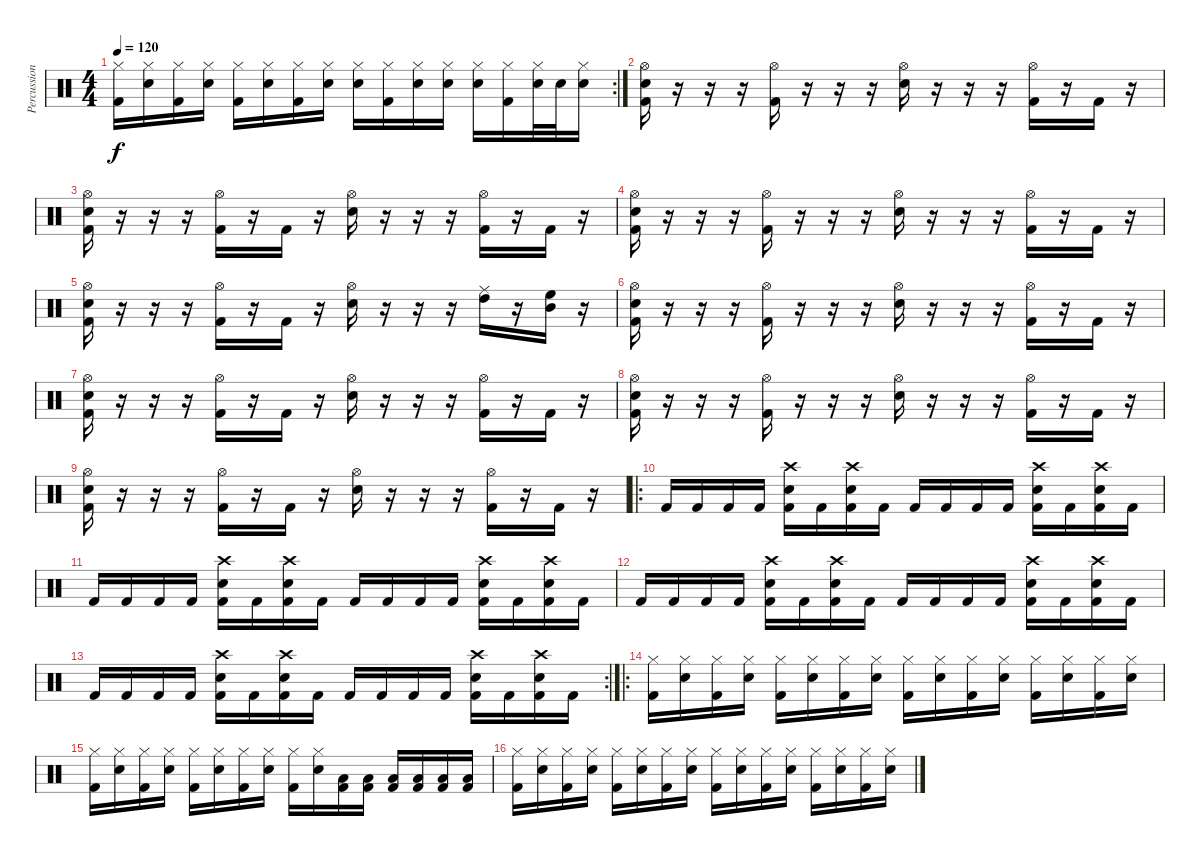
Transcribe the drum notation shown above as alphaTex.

\track ("Percussion" "Percussion") {instrument percussion}
\staff {score}
\articulation defaults
\rc 2
\ts (4 4)
\tempo 120
\clef neutral
\ks c
("Hi-Hat (closed)" "Kick (hit) 2").16{dy f} ("Hi-Hat (closed)" "Snare (hit) 2").16 ("Hi-Hat (closed)" "Kick (hit) 2").16 ("Hi-Hat (closed)" "Snare (hit) 2").16 ("Hi-Hat (closed)" "Kick (hit) 2").16 ("Hi-Hat (closed)" "Snare (hit) 2").16 ("Hi-Hat (closed)" "Kick (hit) 2").16 ("Hi-Hat (closed)" "Snare (hit) 2").16 ("Hi-Hat (closed)" "Snare (hit) 2").16 ("Hi-Hat (closed)" "Kick (hit) 2").16 ("Hi-Hat (closed)" "Snare (hit) 2").16 ("Hi-Hat (closed)" "Snare (hit) 2").16 ("Hi-Hat (closed)" "Snare (hit) 2").16 ("Hi-Hat (closed)" "Kick (hit) 2").16 ("Hi-Hat (closed)" "Snare (hit) 2").32 "Snare (hit) 2".32 ("Hi-Hat (closed)" "Snare (hit) 2").16 |
("Hi-Hat (open)" "Snare (hit) 2" "Kick (hit) 2").16 r.16 r.16 r.16 ("Hi-Hat (open)" "Kick (hit) 2").16 r.16 r.16 r.16 ("Hi-Hat (open)" "Snare (hit) 2").16 r.16 r.16 r.16 ("Hi-Hat (open)" "Kick (hit) 2").16 r.16 "Kick (hit) 2".16 r.16 |
("Hi-Hat (open)" "Snare (hit) 2" "Kick (hit) 2").16 r.16 r.16 r.16 ("Hi-Hat (open)" "Kick (hit) 2").16 r.16 "Kick (hit) 2".16 r.16 ("Hi-Hat (open)" "Snare (hit) 2").16 r.16 r.16 r.16 ("Hi-Hat (open)" "Kick (hit) 2").16 r.16 "Kick (hit) 2".16 r.16 |
("Hi-Hat (open)" "Snare (hit) 2" "Kick (hit) 2").16 r.16 r.16 r.16 ("Hi-Hat (open)" "Kick (hit) 2").16 r.16 r.16 r.16 ("Hi-Hat (open)" "Snare (hit) 2").16 r.16 r.16 r.16 ("Hi-Hat (open)" "Kick (hit) 2").16 r.16 "Kick (hit) 2".16 r.16 |
("Hi-Hat (open)" "Snare (hit) 2" "Kick (hit) 2").16 r.16 r.16 r.16 ("Hi-Hat (open)" "Kick (hit) 2").16 r.16 "Kick (hit) 2".16 r.16 ("Hi-Hat (open)" "Snare (hit) 2").16 r.16 r.16 r.16 ("High Tom (hit)" "Ride (middle)").16 r.16 ("Mid Tom (hit)" "High Floor Tom (hit)").16 r.16 |
("Hi-Hat (open)" "Snare (hit) 2" "Kick (hit) 2").16 r.16 r.16 r.16 ("Hi-Hat (open)" "Kick (hit) 2").16 r.16 r.16 r.16 ("Hi-Hat (open)" "Snare (hit) 2").16 r.16 r.16 r.16 ("Hi-Hat (open)" "Kick (hit) 2").16 r.16 "Kick (hit) 2".16 r.16 |
("Hi-Hat (open)" "Snare (hit) 2" "Kick (hit) 2").16 r.16 r.16 r.16 ("Hi-Hat (open)" "Kick (hit) 2").16 r.16 "Kick (hit) 2".16 r.16 ("Hi-Hat (open)" "Snare (hit) 2").16 r.16 r.16 r.16 ("Hi-Hat (open)" "Kick (hit) 2").16 r.16 "Kick (hit) 2".16 r.16 |
("Hi-Hat (open)" "Snare (hit) 2" "Kick (hit) 2").16 r.16 r.16 r.16 ("Hi-Hat (open)" "Kick (hit) 2").16 r.16 r.16 r.16 ("Hi-Hat (open)" "Snare (hit) 2").16 r.16 r.16 r.16 ("Hi-Hat (open)" "Kick (hit) 2").16 r.16 "Kick (hit) 2".16 r.16 |
("Hi-Hat (open)" "Snare (hit) 2" "Kick (hit) 2").16 r.16 r.16 r.16 ("Hi-Hat (open)" "Kick (hit) 2").16 r.16 "Kick (hit) 2".16 r.16 ("Hi-Hat (open)" "Snare (hit) 2").16 r.16 r.16 r.16 ("Hi-Hat (open)" "Kick (hit) 2").16 r.16 "Kick (hit) 2".16 r.16 |
\ro "Kick (hit) 2".16 "Kick (hit) 2".16 "Kick (hit) 2".16 "Kick (hit) 2".16
("Crash high (hit)" "Snare (hit) 2" "Kick (hit) 2").16 "Kick (hit) 2".16 ("Crash high (hit)" "Snare (hit) 2" "Kick (hit) 2").16 "Kick (hit) 2".16 "Kick (hit) 2".16 "Kick (hit) 2".16 "Kick (hit) 2".16 "Kick (hit) 2".16 ("Crash high (hit)" "Snare (hit) 2" "Kick (hit) 2").16 "Kick (hit) 2".16 ("Crash high (hit)" "Snare (hit) 2" "Kick (hit) 2").16 "Kick (hit) 2".16 |
"Kick (hit) 2".16 "Kick (hit) 2".16 "Kick (hit) 2".16 "Kick (hit) 2".16 ("Crash high (hit)" "Snare (hit) 2" "Kick (hit) 2").16 "Kick (hit) 2".16 ("Crash high (hit)" "Snare (hit) 2" "Kick (hit) 2").16 "Kick (hit) 2".16 "Kick (hit) 2".16 "Kick (hit) 2".16 "Kick (hit) 2".16 "Kick (hit) 2".16 ("Crash high (hit)" "Snare (hit) 2" "Kick (hit) 2").16 "Kick (hit) 2".16 ("Crash high (hit)" "Snare (hit) 2" "Kick (hit) 2").16 "Kick (hit) 2".16 |
"Kick (hit) 2".16 "Kick (hit) 2".16 "Kick (hit) 2".16 "Kick (hit) 2".16 ("Crash high (hit)" "Snare (hit) 2" "Kick (hit) 2").16 "Kick (hit) 2".16 ("Crash high (hit)" "Snare (hit) 2" "Kick (hit) 2").16 "Kick (hit) 2".16 "Kick (hit) 2".16 "Kick (hit) 2".16 "Kick (hit) 2".16 "Kick (hit) 2".16 ("Crash high (hit)" "Snare (hit) 2" "Kick (hit) 2").16 "Kick (hit) 2".16 ("Crash high (hit)" "Snare (hit) 2" "Kick (hit) 2").16 "Kick (hit) 2".16 |
\rc 2 "Kick (hit) 2".16 "Kick (hit) 2".16 "Kick (hit) 2".16 "Kick (hit) 2".16
("Crash high (hit)" "Snare (hit) 2" "Kick (hit) 2").16 "Kick (hit) 2".16 ("Crash high (hit)" "Snare (hit) 2" "Kick (hit) 2").16 "Kick (hit) 2".16 "Kick (hit) 2".16 "Kick (hit) 2".16 "Kick (hit) 2".16 "Kick (hit) 2".16 ("Crash high (hit)" "Snare (hit) 2" "Kick (hit) 2").16 "Kick (hit) 2".16 ("Crash high (hit)" "Snare (hit) 2" "Kick (hit) 2").16 "Kick (hit) 2".16 |
\ro
("Hi-Hat (closed)" "Kick (hit) 2").16 ("Hi-Hat (closed)" "Snare (hit) 2").16 ("Hi-Hat (closed)" "Kick (hit) 2").16 ("Hi-Hat (closed)" "Snare (hit) 2").16 ("Hi-Hat (closed)" "Kick (hit) 2").16 ("Hi-Hat (closed)" "Snare (hit) 2").16 ("Hi-Hat (closed)" "Kick (hit) 2").16 ("Hi-Hat (closed)" "Snare (hit) 2").16 ("Hi-Hat (closed)" "Kick (hit) 2").16 ("Hi-Hat (closed)" "Snare (hit) 2").16 ("Hi-Hat (closed)" "Kick (hit) 2").16 ("Hi-Hat (closed)" "Snare (hit) 2").16 ("Hi-Hat (closed)" "Kick (hit) 2").16 ("Hi-Hat (closed)" "Snare (hit) 2").16 ("Hi-Hat (closed)" "Kick (hit) 2").16 ("Hi-Hat (closed)" "Snare (hit) 2").16 |
("Hi-Hat (closed)" "Kick (hit) 2").16 ("Hi-Hat (closed)" "Snare (hit) 2").16 ("Hi-Hat (closed)" "Kick (hit) 2").16 ("Hi-Hat (closed)" "Snare (hit) 2").16 ("Hi-Hat (closed)" "Kick (hit) 2").16 ("Hi-Hat (closed)" "Snare (hit) 2").16 ("Hi-Hat (closed)" "Kick (hit) 2").16 ("Hi-Hat (closed)" "Snare (hit) 2").16 ("Hi-Hat (closed)" "Kick (hit) 2").16 ("Hi-Hat (closed)" "Snare (hit) 2").16 ("Low Tom (hit)" "Kick (hit) 2").16 ("Low Tom (hit)" "Kick (hit) 2").16 ("Low Tom (hit)" "Kick (hit) 2").16 ("Low Tom (hit)" "Kick (hit) 2").16 ("Low Tom (hit)" "Kick (hit) 2").16 ("Low Tom (hit)" "Kick (hit) 2").16 |
("Hi-Hat (closed)" "Kick (hit) 2").16 ("Hi-Hat (closed)" "Snare (hit) 2").16 ("Hi-Hat (closed)" "Kick (hit) 2").16 ("Hi-Hat (closed)" "Snare (hit) 2").16 ("Hi-Hat (closed)" "Kick (hit) 2").16 ("Hi-Hat (closed)" "Snare (hit) 2").16 ("Hi-Hat (closed)" "Kick (hit) 2").16 ("Hi-Hat (closed)" "Snare (hit) 2").16 ("Hi-Hat (closed)" "Kick (hit) 2").16 ("Hi-Hat (closed)" "Snare (hit) 2").16 ("Hi-Hat (closed)" "Kick (hit) 2").16 ("Hi-Hat (closed)" "Snare (hit) 2").16 ("Hi-Hat (closed)" "Kick (hit) 2").16 ("Hi-Hat (closed)" "Snare (hit) 2").16 ("Hi-Hat (closed)" "Kick (hit) 2").16 ("Hi-Hat (closed)" "Snare (hit) 2").16
